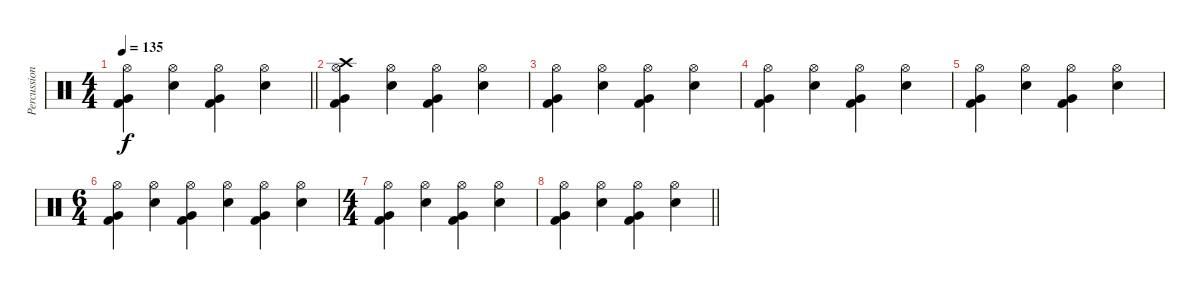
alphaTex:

\track ("Percussion" "Percussion") {instrument percussion}
\staff {score}
\articulation defaults
\ts (4 4)
\tempo 135
\clef neutral
\barLineRight lightlight
\ks c
("Hi-Hat (open)" "Very Low Tom (hit)" "Kick (hit) 2").4{dy f} ("Hi-Hat (open)" "Electric Snare (hit)").4 ("Hi-Hat (open)" "Very Low Tom (hit)" "Kick (hit) 2").4 ("Hi-Hat (open)" "Electric Snare (hit)").4 |
("Hi-Hat (open)" "Crash high (hit)" "Very Low Tom (hit)" "Kick (hit) 2").4 ("Hi-Hat (open)" "Electric Snare (hit)").4 ("Hi-Hat (open)" "Very Low Tom (hit)" "Kick (hit) 2").4{volume 0} ("Hi-Hat (open)" "Electric Snare (hit)").4 |
("Hi-Hat (open)" "Very Low Tom (hit)" "Kick (hit) 2").4 ("Hi-Hat (open)" "Electric Snare (hit)").4 ("Hi-Hat (open)" "Very Low Tom (hit)" "Kick (hit) 2").4 ("Hi-Hat (open)" "Electric Snare (hit)").4 |
("Hi-Hat (open)" "Very Low Tom (hit)" "Kick (hit) 2").4 ("Hi-Hat (open)" "Electric Snare (hit)").4 ("Hi-Hat (open)" "Very Low Tom (hit)" "Kick (hit) 2").4 ("Hi-Hat (open)" "Electric Snare (hit)").4 |
("Hi-Hat (open)" "Very Low Tom (hit)" "Kick (hit) 2").4 ("Hi-Hat (open)" "Electric Snare (hit)").4 ("Hi-Hat (open)" "Very Low Tom (hit)" "Kick (hit) 2").4 ("Hi-Hat (open)" "Electric Snare (hit)").4 |
\ts (6 4)
("Hi-Hat (open)" "Very Low Tom (hit)" "Kick (hit) 2").4 ("Hi-Hat (open)" "Electric Snare (hit)").4 ("Hi-Hat (open)" "Very Low Tom (hit)" "Kick (hit) 2").4 ("Hi-Hat (open)" "Electric Snare (hit)").4 ("Hi-Hat (open)" "Very Low Tom (hit)" "Kick (hit) 2").4 ("Hi-Hat (open)" "Electric Snare (hit)").4 |
\ts (4 4)
("Hi-Hat (open)" "Very Low Tom (hit)" "Kick (hit) 2").4 ("Hi-Hat (open)" "Electric Snare (hit)").4 ("Hi-Hat (open)" "Very Low Tom (hit)" "Kick (hit) 2").4 ("Hi-Hat (open)" "Electric Snare (hit)").4 |
\barLineRight lightlight
("Hi-Hat (open)" "Very Low Tom (hit)" "Kick (hit) 2").4 ("Hi-Hat (open)" "Electric Snare (hit)").4 ("Hi-Hat (open)" "Very Low Tom (hit)" "Kick (hit) 2").4 ("Hi-Hat (open)" "Electric Snare (hit)").4
